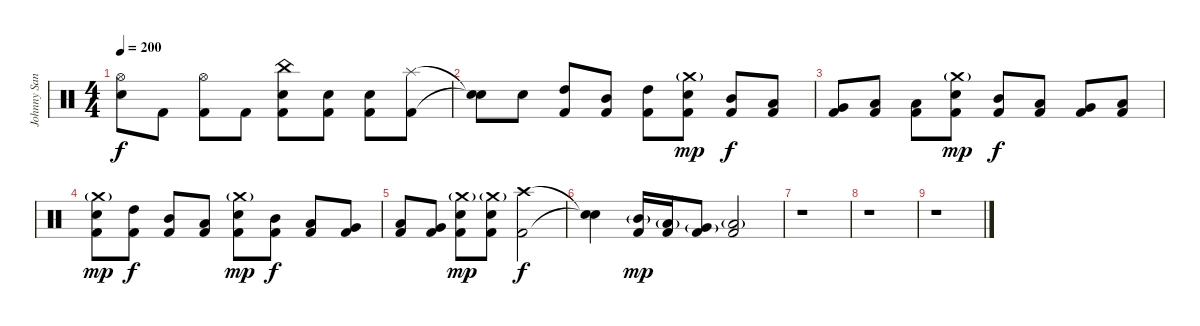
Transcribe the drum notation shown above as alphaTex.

\track ("Johnny Sandin" "Johnny San") {instrument percussion}
\staff {score}
\articulation defaults
\ts (4 4)
\tempo 200
\clef neutral
\ks c
("Hi-Hat (open)" "Snare (hit)"{t}).8{dy f} "Kick (hit) 2".8 ("Hi-Hat (open)" "Kick (hit) 2").8 "Kick (hit) 2".8 ("China (hit)" "Snare (hit) 2" "Kick (hit) 2").8 ("Snare (hit) 2" "Kick (hit) 2").8 ("Snare (hit) 2" "Kick (hit) 2").8 ("Splash (hit)" "Kick (hit) 2").8 |
("Snare (hit)"{t} "Snare (hit)"{t}).8 "Snare (hit) 2".8 ("High Tom (hit)" "Kick (hit) 2").8 ("Mid Tom (hit)" "Kick (hit) 2").8 ("High Tom (hit)" "Kick (hit) 2").8 ("Crash medium (hit)"{g} "Snare (hit) 2" "Kick (hit) 2").8{dy mp} ("Mid Tom (hit)" "Kick (hit) 2").8{dy f} ("Low Tom (hit)" "Kick (hit) 2").8 |
("Very Low Tom (hit)" "Kick (hit) 2").8 ("Low Floor Tom (hit)" "Kick (hit) 2").8 ("Low Tom (hit)" "Kick (hit) 2").8 ("Crash medium (hit)"{g} "Snare (hit) 2" "Kick (hit) 2").8{dy mp} ("Mid Tom (hit)" "Kick (hit) 2").8{dy f} ("Low Tom (hit)" "Kick (hit) 2").8 ("Very Low Tom (hit)" "Kick (hit) 2").8 ("Low Floor Tom (hit)" "Kick (hit) 2").8 |
("Crash medium (hit)"{g} "Snare (hit) 2" "Kick (hit) 2").8{dy mp} ("High Tom (hit)" "Kick (hit) 2").8{dy f} ("Mid Tom (hit)" "Kick (hit) 2").8 ("Low Tom (hit)" "Kick (hit) 2").8 ("Crash medium (hit)"{g} "Snare (hit) 2" "Kick (hit) 2").8{dy mp} ("Mid Tom (hit)" "Kick (hit) 2").8{dy f} ("Low Tom (hit)" "Kick (hit) 2").8 ("Very Low Tom (hit)" "Kick (hit) 2").8 |
("Low Tom (hit)" "Kick (hit) 2").8 ("Very Low Tom (hit)" "Kick (hit) 2").8 ("Crash medium (hit)"{g} "Snare (hit) 2" "Kick (hit) 2").8{dy mp} ("Crash medium (hit)"{g} "Snare (hit) 2" "Kick (hit) 2").8 ("Crash high (hit)" "Kick (hit) 2").2{dy f} |
("Snare (hit)"{t} "Snare (hit)"{t}).4 ("Mid Tom (hit)"{g} "Kick (hit) 2").16{dy mp} ("Low Tom (hit)"{g} "Kick (hit) 2").16 ("Very Low Tom (hit)"{g} "Kick (hit) 2").8 ("Low Floor Tom (hit)"{g} "Kick (hit) 2").2 |
r.1 |
r.1 |
r.1
